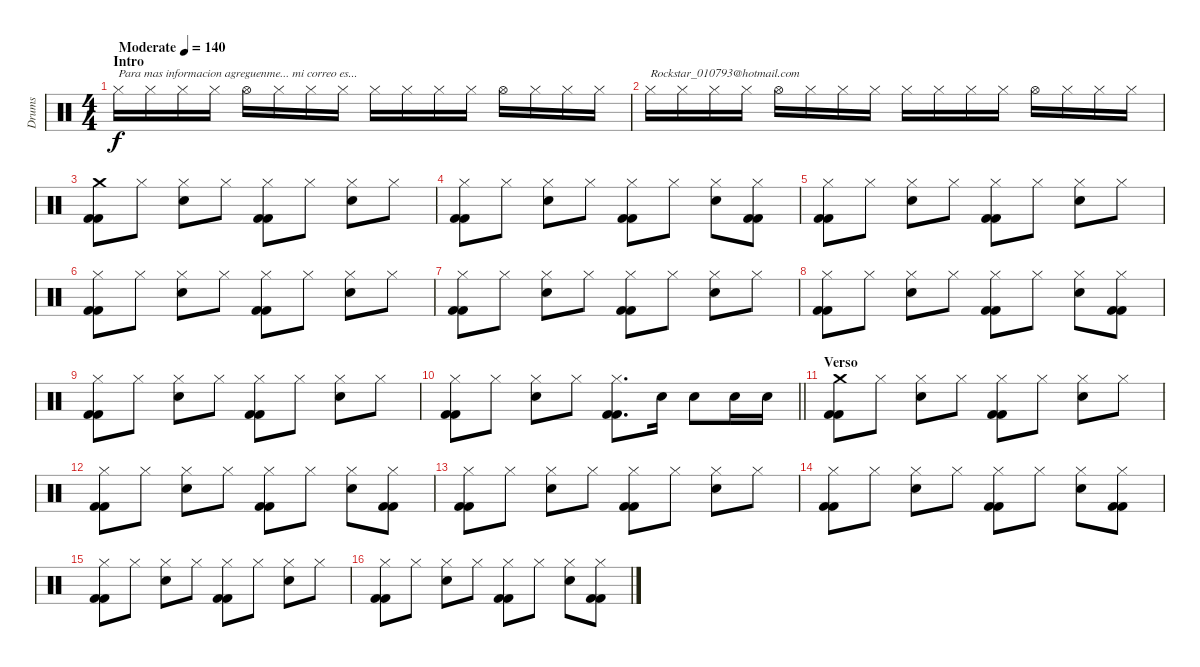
\track ("Drums" "Drums") {instrument percussion}
\staff {score}
\articulation defaults
\ts (4 4)
\section ("" "Intro")
\tempo (140 "Moderate")
\clef neutral
\ks c "Hi-Hat (closed)".16{txt "Para mas informacion agreguenme... mi correo es..." dy f} "Hi-Hat (closed)".16 "Hi-Hat (closed)".16 "Hi-Hat (closed)".16 "Hi-Hat (open)".16 "Hi-Hat (closed)".16 "Hi-Hat (closed)".16 "Hi-Hat (closed)".16 "Hi-Hat (closed)".16 "Hi-Hat (closed)".16 "Hi-Hat (closed)".16 "Hi-Hat (closed)".16 "Hi-Hat (open)".16 "Hi-Hat (closed)".16 "Hi-Hat (closed)".16 "Hi-Hat (closed)".16
|
"Hi-Hat (closed)".16{txt "Rockstar_010793@hotmail.com"} "Hi-Hat (closed)".16 "Hi-Hat (closed)".16 "Hi-Hat (closed)".16 "Hi-Hat (open)".16 "Hi-Hat (closed)".16 "Hi-Hat (closed)".16 "Hi-Hat (closed)".16 "Hi-Hat (closed)".16 "Hi-Hat (closed)".16 "Hi-Hat (closed)".16 "Hi-Hat (closed)".16 "Hi-Hat (open)".16 "Hi-Hat (closed)".16 "Hi-Hat (closed)".16 "Hi-Hat (closed)".16 |
("Crash medium (hit)" "Kick (hit) 2" "Kick (hit) 2").8 "Hi-Hat (closed)".8 ("Hi-Hat (closed)" "Electric Snare (hit)").8 "Hi-Hat (closed)".8 ("Hi-Hat (closed)" "Kick (hit) 2" "Kick (hit) 2").8 "Hi-Hat (closed)".8 ("Hi-Hat (closed)" "Electric Snare (hit)").8 "Hi-Hat (closed)".8 |
("Hi-Hat (closed)" "Kick (hit) 2" "Kick (hit) 2").8 "Hi-Hat (closed)".8 ("Hi-Hat (closed)" "Electric Snare (hit)").8 "Hi-Hat (closed)".8 ("Hi-Hat (closed)" "Kick (hit) 2" "Kick (hit) 2").8 "Hi-Hat (closed)".8 ("Hi-Hat (closed)" "Electric Snare (hit)").8 ("Hi-Hat (closed)" "Kick (hit) 2" "Kick (hit) 2").8 |
("Hi-Hat (closed)" "Kick (hit) 2" "Kick (hit) 2").8 "Hi-Hat (closed)".8 ("Hi-Hat (closed)" "Electric Snare (hit)").8 "Hi-Hat (closed)".8 ("Hi-Hat (closed)" "Kick (hit) 2" "Kick (hit) 2").8 "Hi-Hat (closed)".8 ("Hi-Hat (closed)" "Electric Snare (hit)").8 "Hi-Hat (closed)".8 |
("Hi-Hat (closed)" "Kick (hit) 2" "Kick (hit) 2").8 "Hi-Hat (closed)".8 ("Hi-Hat (closed)" "Electric Snare (hit)").8 "Hi-Hat (closed)".8 ("Hi-Hat (closed)" "Kick (hit) 2" "Kick (hit) 2").8 "Hi-Hat (closed)".8 ("Hi-Hat (closed)" "Electric Snare (hit)").8 "Hi-Hat (closed)".8 |
("Hi-Hat (closed)" "Kick (hit) 2" "Kick (hit) 2").8 "Hi-Hat (closed)".8 ("Hi-Hat (closed)" "Electric Snare (hit)").8 "Hi-Hat (closed)".8 ("Hi-Hat (closed)" "Kick (hit) 2" "Kick (hit) 2").8 "Hi-Hat (closed)".8 ("Hi-Hat (closed)" "Electric Snare (hit)").8 "Hi-Hat (closed)".8 |
("Hi-Hat (closed)" "Kick (hit) 2" "Kick (hit) 2").8 "Hi-Hat (closed)".8 ("Hi-Hat (closed)" "Electric Snare (hit)").8 "Hi-Hat (closed)".8 ("Hi-Hat (closed)" "Kick (hit) 2" "Kick (hit) 2").8 "Hi-Hat (closed)".8 ("Hi-Hat (closed)" "Electric Snare (hit)").8 ("Hi-Hat (closed)" "Kick (hit) 2" "Kick (hit) 2").8 |
("Hi-Hat (closed)" "Kick (hit) 2" "Kick (hit) 2").8 "Hi-Hat (closed)".8 ("Hi-Hat (closed)" "Electric Snare (hit)").8 "Hi-Hat (closed)".8 ("Hi-Hat (closed)" "Kick (hit) 2" "Kick (hit) 2").8 "Hi-Hat (closed)".8 ("Hi-Hat (closed)" "Electric Snare (hit)").8 "Hi-Hat (closed)".8 |
\barLineRight lightlight
("Hi-Hat (closed)" "Kick (hit) 2" "Kick (hit) 2").8 "Hi-Hat (closed)".8 ("Hi-Hat (closed)" "Electric Snare (hit)").8 "Hi-Hat (closed)".8 ("Hi-Hat (closed)" "Kick (hit) 2" "Kick (hit) 2").8{d} "Electric Snare (hit)".16 "Electric Snare (hit)".8 "Electric Snare (hit)".16 "Electric Snare (hit)".16 |
\section ("" "Verso")
("Crash medium (hit)" "Kick (hit) 2" "Kick (hit) 2").8 "Hi-Hat (closed)".8 ("Hi-Hat (closed)" "Electric Snare (hit)").8 "Hi-Hat (closed)".8 ("Hi-Hat (closed)" "Kick (hit) 2" "Kick (hit) 2").8 "Hi-Hat (closed)".8 ("Hi-Hat (closed)" "Electric Snare (hit)").8 "Hi-Hat (closed)".8 |
("Hi-Hat (closed)" "Kick (hit) 2" "Kick (hit) 2").8 "Hi-Hat (closed)".8 ("Hi-Hat (closed)" "Electric Snare (hit)").8 "Hi-Hat (closed)".8 ("Hi-Hat (closed)" "Kick (hit) 2" "Kick (hit) 2").8 "Hi-Hat (closed)".8 ("Hi-Hat (closed)" "Electric Snare (hit)").8 ("Hi-Hat (closed)" "Kick (hit) 2" "Kick (hit) 2").8 |
("Hi-Hat (closed)" "Kick (hit) 2" "Kick (hit) 2").8 "Hi-Hat (closed)".8 ("Hi-Hat (closed)" "Electric Snare (hit)").8 "Hi-Hat (closed)".8 ("Hi-Hat (closed)" "Kick (hit) 2" "Kick (hit) 2").8 "Hi-Hat (closed)".8 ("Hi-Hat (closed)" "Electric Snare (hit)").8 "Hi-Hat (closed)".8 |
("Hi-Hat (closed)" "Kick (hit) 2" "Kick (hit) 2").8 "Hi-Hat (closed)".8 ("Hi-Hat (closed)" "Electric Snare (hit)").8 "Hi-Hat (closed)".8 ("Hi-Hat (closed)" "Kick (hit) 2" "Kick (hit) 2").8 "Hi-Hat (closed)".8 ("Hi-Hat (closed)" "Electric Snare (hit)").8 ("Hi-Hat (closed)" "Kick (hit) 2" "Kick (hit) 2").8 |
("Hi-Hat (closed)" "Kick (hit) 2" "Kick (hit) 2").8 "Hi-Hat (closed)".8 ("Hi-Hat (closed)" "Electric Snare (hit)").8 "Hi-Hat (closed)".8 ("Hi-Hat (closed)" "Kick (hit) 2" "Kick (hit) 2").8 "Hi-Hat (closed)".8 ("Hi-Hat (closed)" "Electric Snare (hit)").8 "Hi-Hat (closed)".8 |
("Hi-Hat (closed)" "Kick (hit) 2" "Kick (hit) 2").8 "Hi-Hat (closed)".8 ("Hi-Hat (closed)" "Electric Snare (hit)").8 "Hi-Hat (closed)".8 ("Hi-Hat (closed)" "Kick (hit) 2" "Kick (hit) 2").8 "Hi-Hat (closed)".8 ("Hi-Hat (closed)" "Electric Snare (hit)").8 ("Hi-Hat (closed)" "Kick (hit) 2" "Kick (hit) 2").8
